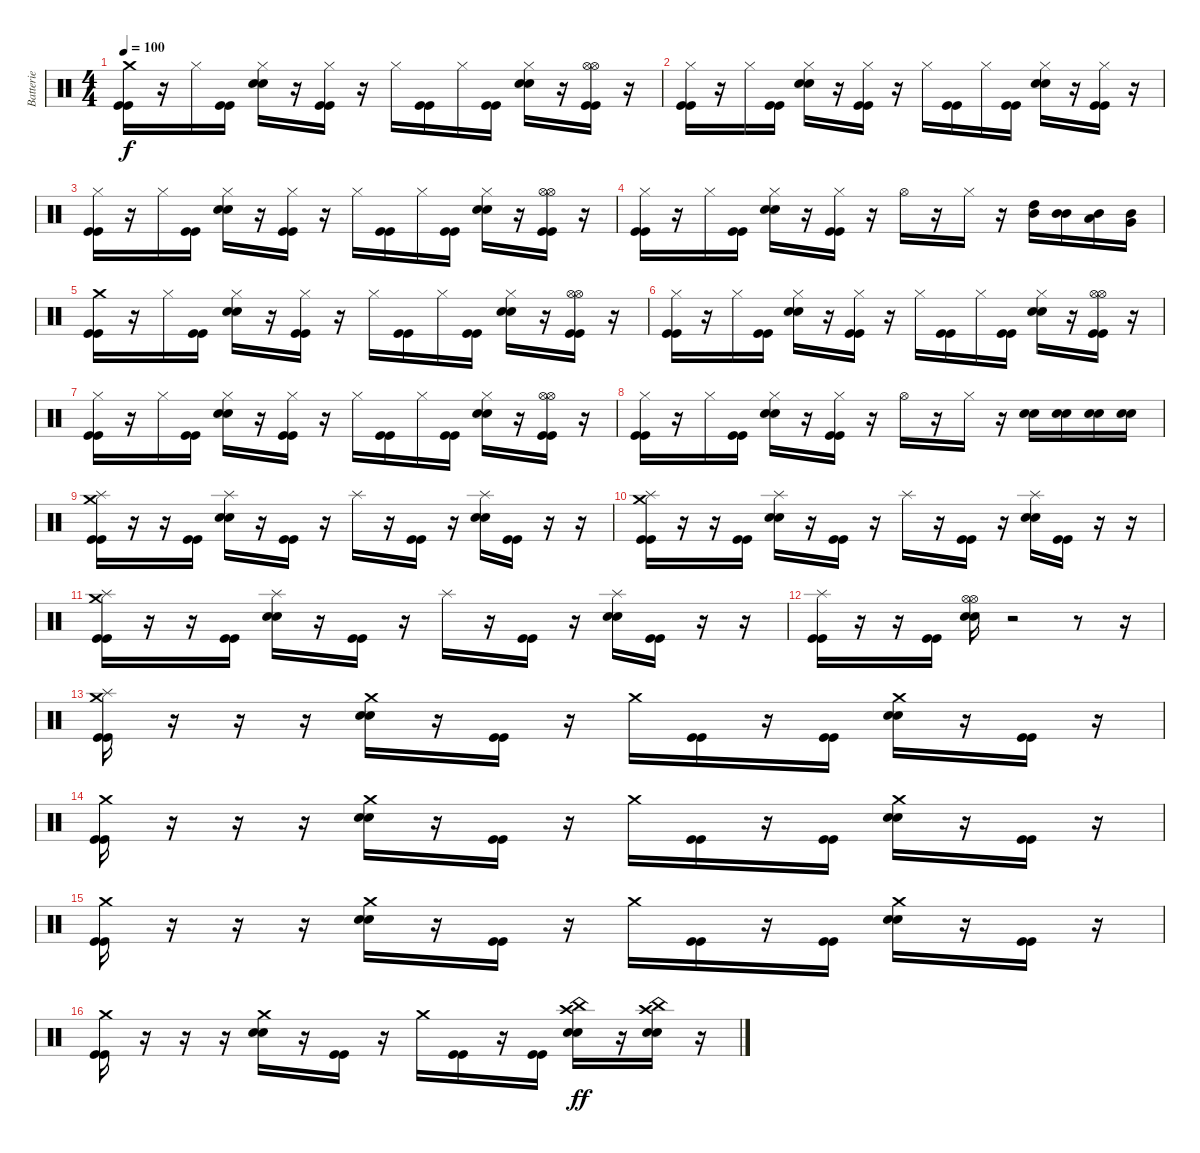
\track ("Batterie" "Batterie") {instrument percussion}
\staff {score}
\articulation defaults
\ts (4 4)
\tempo 100
\clef neutral
\ks c
("Crash medium (hit)" "Kick (hit)" "Kick (hit)").16{dy f} r.16 "Hi-Hat (closed)".16 ("Kick (hit)" "Kick (hit)").16 ("Hi-Hat (closed)" "Electric Snare (hit)" "Electric Snare (hit)").16 r.16 ("Hi-Hat (closed)" "Kick (hit)" "Kick (hit)").16 r.16 "Hi-Hat (closed)".16 ("Kick (hit)" "Kick (hit)").16 "Hi-Hat (closed)".16 ("Kick (hit)" "Kick (hit)").16 ("Hi-Hat (closed)" "Electric Snare (hit)" "Electric Snare (hit)").16 r.16 ("Hi-Hat (open)" "Hi-Hat (open)" "Kick (hit)" "Kick (hit)").16 r.16 |
("Hi-Hat (closed)" "Kick (hit)" "Kick (hit)").16 r.16 "Hi-Hat (closed)".16 ("Kick (hit)" "Kick (hit)").16 ("Hi-Hat (closed)" "Electric Snare (hit)" "Electric Snare (hit)").16 r.16 ("Hi-Hat (closed)" "Kick (hit)" "Kick (hit)").16 r.16 "Hi-Hat (closed)".16 ("Kick (hit)" "Kick (hit)").16 "Hi-Hat (closed)".16 ("Kick (hit)" "Kick (hit)").16 ("Hi-Hat (closed)" "Electric Snare (hit)" "Electric Snare (hit)").16 r.16 ("Hi-Hat (closed)" "Kick (hit)" "Kick (hit)").16 r.16 |
("Hi-Hat (closed)" "Kick (hit)" "Kick (hit)").16 r.16 "Hi-Hat (closed)".16 ("Kick (hit)" "Kick (hit)").16 ("Hi-Hat (closed)" "Electric Snare (hit)" "Electric Snare (hit)").16 r.16 ("Hi-Hat (closed)" "Kick (hit)" "Kick (hit)").16 r.16 "Hi-Hat (closed)".16 ("Kick (hit)" "Kick (hit)").16 "Hi-Hat (closed)".16 ("Kick (hit)" "Kick (hit)").16 ("Hi-Hat (closed)" "Electric Snare (hit)" "Electric Snare (hit)").16 r.16 ("Hi-Hat (open)" "Hi-Hat (open)" "Kick (hit)" "Kick (hit)").16 r.16 |
("Hi-Hat (closed)" "Kick (hit)" "Kick (hit)").16 r.16 "Hi-Hat (closed)".16 ("Kick (hit)" "Kick (hit)").16 ("Hi-Hat (closed)" "Electric Snare (hit)" "Electric Snare (hit)").16 r.16 ("Hi-Hat (closed)" "Kick (hit)" "Kick (hit)").16 r.16 "Hi-Hat (open)".16 r.16 "Hi-Hat (closed)".16 r.16 ("High Tom (hit)" "Mid Tom (hit)").16 ("Mid Tom (hit)" "Mid Tom (hit)").16 ("Low Tom (hit)" "Mid Tom (hit)").16 ("Very Low Tom (hit)" "Mid Tom (hit)").16 |
("Crash medium (hit)" "Kick (hit)" "Kick (hit)").16 r.16 "Hi-Hat (closed)".16 ("Kick (hit)" "Kick (hit)").16 ("Hi-Hat (closed)" "Electric Snare (hit)" "Electric Snare (hit)").16 r.16 ("Hi-Hat (closed)" "Kick (hit)" "Kick (hit)").16 r.16 "Hi-Hat (closed)".16 ("Kick (hit)" "Kick (hit)").16 "Hi-Hat (closed)".16 ("Kick (hit)" "Kick (hit)").16 ("Hi-Hat (closed)" "Electric Snare (hit)" "Electric Snare (hit)").16 r.16 ("Hi-Hat (open)" "Hi-Hat (open)" "Kick (hit)" "Kick (hit)").16 r.16 |
("Hi-Hat (closed)" "Kick (hit)" "Kick (hit)").16 r.16 "Hi-Hat (closed)".16 ("Kick (hit)" "Kick (hit)").16 ("Hi-Hat (closed)" "Electric Snare (hit)" "Electric Snare (hit)").16 r.16 ("Hi-Hat (closed)" "Kick (hit)" "Kick (hit)").16 r.16 "Hi-Hat (closed)".16 ("Kick (hit)" "Kick (hit)").16 "Hi-Hat (closed)".16 ("Kick (hit)" "Kick (hit)").16 ("Hi-Hat (closed)" "Electric Snare (hit)" "Electric Snare (hit)").16 r.16 ("Hi-Hat (open)" "Hi-Hat (open)" "Kick (hit)" "Kick (hit)").16 r.16 |
("Hi-Hat (closed)" "Kick (hit)" "Kick (hit)").16 r.16 "Hi-Hat (closed)".16 ("Kick (hit)" "Kick (hit)").16 ("Hi-Hat (closed)" "Electric Snare (hit)" "Electric Snare (hit)").16 r.16 ("Hi-Hat (closed)" "Kick (hit)" "Kick (hit)").16 r.16 "Hi-Hat (closed)".16 ("Kick (hit)" "Kick (hit)").16 "Hi-Hat (closed)".16 ("Kick (hit)" "Kick (hit)").16 ("Hi-Hat (closed)" "Electric Snare (hit)" "Electric Snare (hit)").16 r.16 ("Hi-Hat (open)" "Hi-Hat (open)" "Kick (hit)" "Kick (hit)").16 r.16 |
("Hi-Hat (closed)" "Kick (hit)" "Kick (hit)").16 r.16 "Hi-Hat (closed)".16 ("Kick (hit)" "Kick (hit)").16 ("Hi-Hat (closed)" "Electric Snare (hit)" "Electric Snare (hit)").16 r.16 ("Hi-Hat (closed)" "Kick (hit)" "Kick (hit)").16 r.16 "Hi-Hat (open)".16 r.16 "Hi-Hat (closed)".16 r.16 ("Electric Snare (hit)" "Electric Snare (hit)").16 ("Electric Snare (hit)" "Electric Snare (hit)").16 ("Electric Snare (hit)" "Electric Snare (hit)").16 ("Electric Snare (hit)" "Electric Snare (hit)").16 |
("Splash (hit)" "Crash medium (hit)" "Kick (hit)" "Kick (hit)").16 r.16 r.16 ("Kick (hit)" "Kick (hit)").16 ("Splash (hit)" "Electric Snare (hit)" "Electric Snare (hit)").16 r.16 ("Kick (hit)" "Kick (hit)").16 r.16 "Splash (hit)".16 r.16 ("Kick (hit)" "Kick (hit)").16 r.16 ("Splash (hit)" "Electric Snare (hit)" "Electric Snare (hit)").16 ("Kick (hit)" "Kick (hit)").16 r.16 r.16 |
("Splash (hit)" "Crash medium (hit)" "Kick (hit)" "Kick (hit)").16 r.16 r.16 ("Kick (hit)" "Kick (hit)").16 ("Splash (hit)" "Electric Snare (hit)" "Electric Snare (hit)").16 r.16 ("Kick (hit)" "Kick (hit)").16 r.16 "Splash (hit)".16 r.16 ("Kick (hit)" "Kick (hit)").16 r.16 ("Splash (hit)" "Electric Snare (hit)" "Electric Snare (hit)").16 ("Kick (hit)" "Kick (hit)").16 r.16 r.16 |
("Splash (hit)" "Crash medium (hit)" "Kick (hit)" "Kick (hit)").16 r.16 r.16 ("Kick (hit)" "Kick (hit)").16 ("Splash (hit)" "Electric Snare (hit)" "Electric Snare (hit)").16 r.16 ("Kick (hit)" "Kick (hit)").16 r.16 "Splash (hit)".16 r.16 ("Kick (hit)" "Kick (hit)").16 r.16 ("Splash (hit)" "Electric Snare (hit)" "Electric Snare (hit)").16 ("Kick (hit)" "Kick (hit)").16 r.16 r.16 |
("Splash (hit)" "Kick (hit)" "Kick (hit)").16 r.16 r.16 ("Kick (hit)" "Kick (hit)").16 ("Hi-Hat (open)" "Hi-Hat (open)" "Electric Snare (hit)" "Electric Snare (hit)").16 r.2 r.8 r.16 |
("Crash medium (hit)" "Splash (hit)" "Kick (hit)" "Kick (hit)").16 r.16 r.16 r.16 ("Crash medium (hit)" "Electric Snare (hit)" "Electric Snare (hit)").16 r.16 ("Kick (hit)" "Kick (hit)").16 r.16 "Crash medium (hit)".16 ("Kick (hit)" "Kick (hit)").16 r.16 ("Kick (hit)" "Kick (hit)").16 ("Crash medium (hit)" "Electric Snare (hit)" "Electric Snare (hit)").16 r.16 ("Kick (hit)" "Kick (hit)").16 r.16 |
("Crash medium (hit)" "Kick (hit)" "Kick (hit)").16 r.16 r.16 r.16 ("Crash medium (hit)" "Electric Snare (hit)" "Electric Snare (hit)").16 r.16 ("Kick (hit)" "Kick (hit)").16 r.16 "Crash medium (hit)".16 ("Kick (hit)" "Kick (hit)").16 r.16 ("Kick (hit)" "Kick (hit)").16 ("Crash medium (hit)" "Electric Snare (hit)" "Electric Snare (hit)").16 r.16 ("Kick (hit)" "Kick (hit)").16 r.16 |
("Crash medium (hit)" "Kick (hit)" "Kick (hit)").16 r.16 r.16 r.16 ("Crash medium (hit)" "Electric Snare (hit)" "Electric Snare (hit)").16 r.16 ("Kick (hit)" "Kick (hit)").16 r.16 "Crash medium (hit)".16 ("Kick (hit)" "Kick (hit)").16 r.16 ("Kick (hit)" "Kick (hit)").16 ("Crash medium (hit)" "Electric Snare (hit)" "Electric Snare (hit)").16 r.16 ("Kick (hit)" "Kick (hit)").16 r.16 |
("Crash medium (hit)" "Kick (hit)" "Kick (hit)").16 r.16 r.16 r.16 ("Crash medium (hit)" "Electric Snare (hit)" "Electric Snare (hit)").16 r.16 ("Kick (hit)" "Kick (hit)").16 r.16 "Crash medium (hit)".16 ("Kick (hit)" "Kick (hit)").16 r.16 ("Kick (hit)" "Kick (hit)").16 ("Crash high (hit)" "China (hit)" "Electric Snare (hit)" "Electric Snare (hit)").16{dy ff} r.16 ("Crash high (hit)" "China (hit)" "Electric Snare (hit)" "Electric Snare (hit)").16 r.16
